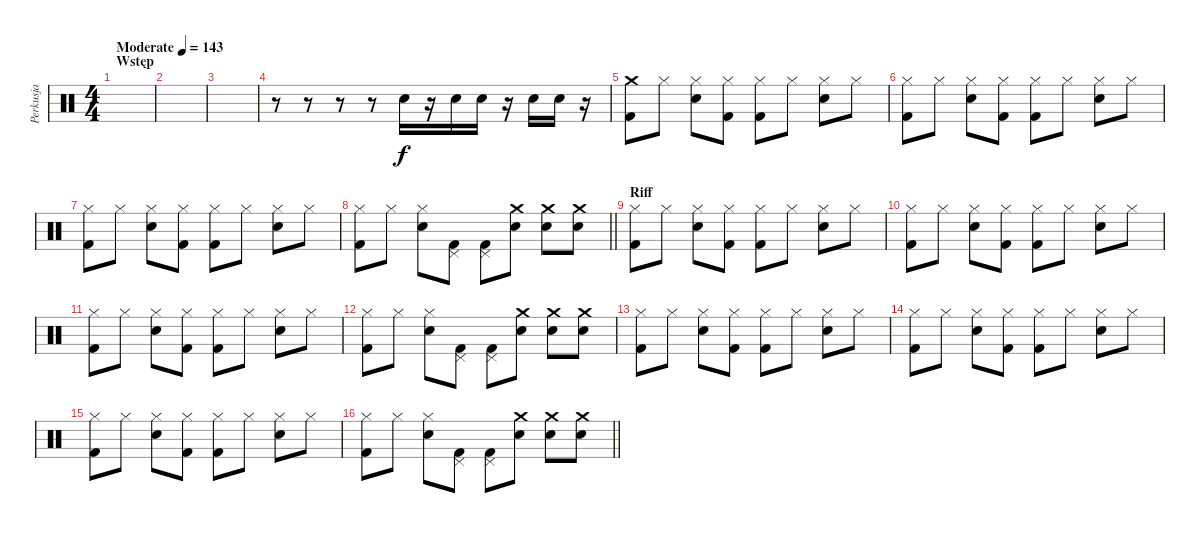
\track ("Perkusja" "Perkusja") {instrument percussion}
\staff {score}
\articulation defaults
\ts (4 4)
\section ("" "Wstęp")
\tempo (143 "Moderate")
\clef neutral
\ks c
|
|
|
r.8 r.8 r.8 r.8 "Snare (hit) 2".16 r.16 "Snare (hit) 2".16 "Snare (hit) 2".16 r.16 "Snare (hit) 2".16 "Snare (hit) 2".16 r.16 |
("Crash medium (hit)" "Kick (hit) 2").8 "Hi-Hat (closed)".8 ("Hi-Hat (closed)" "Electric Snare (hit)").8 ("Hi-Hat (closed)" "Kick (hit) 2").8 ("Hi-Hat (closed)" "Kick (hit) 2").8 "Hi-Hat (closed)".8 ("Hi-Hat (closed)" "Electric Snare (hit)").8 "Hi-Hat (closed)".8 |
("Hi-Hat (closed)" "Kick (hit) 2").8 "Hi-Hat (closed)".8 ("Hi-Hat (closed)" "Electric Snare (hit)").8 ("Hi-Hat (closed)" "Kick (hit) 2").8 ("Hi-Hat (closed)" "Kick (hit) 2").8 "Hi-Hat (closed)".8 ("Hi-Hat (closed)" "Electric Snare (hit)").8 "Hi-Hat (closed)".8 |
("Hi-Hat (closed)" "Kick (hit) 2").8 "Hi-Hat (closed)".8 ("Hi-Hat (closed)" "Electric Snare (hit)").8 ("Hi-Hat (closed)" "Kick (hit) 2").8 ("Hi-Hat (closed)" "Kick (hit) 2").8 "Hi-Hat (closed)".8 ("Hi-Hat (closed)" "Electric Snare (hit)").8 "Hi-Hat (closed)".8 |
\barLineRight lightlight
("Hi-Hat (closed)" "Kick (hit) 2").8 "Hi-Hat (closed)".8 ("Hi-Hat (closed)" "Electric Snare (hit)").8 ("Pedal Hi-Hat (hit)" "Kick (hit) 2").8 ("Pedal Hi-Hat (hit)" "Kick (hit) 2").8 ("Crash medium (hit)" "Snare (hit) 2").8 ("Crash medium (hit)" "Snare (hit) 2").8 ("Crash medium (hit)" "Snare (hit) 2").8 |
\section ("" "Riff")
("Hi-Hat (closed)" "Kick (hit) 2").8 "Hi-Hat (closed)".8 ("Hi-Hat (closed)" "Electric Snare (hit)").8 ("Hi-Hat (closed)" "Kick (hit) 2").8 ("Hi-Hat (closed)" "Kick (hit) 2").8 "Hi-Hat (closed)".8 ("Hi-Hat (closed)" "Electric Snare (hit)").8 "Hi-Hat (closed)".8 |
("Hi-Hat (closed)" "Kick (hit) 2").8 "Hi-Hat (closed)".8 ("Hi-Hat (closed)" "Electric Snare (hit)").8 ("Hi-Hat (closed)" "Kick (hit) 2").8 ("Hi-Hat (closed)" "Kick (hit) 2").8 "Hi-Hat (closed)".8 ("Hi-Hat (closed)" "Electric Snare (hit)").8 "Hi-Hat (closed)".8 |
("Hi-Hat (closed)" "Kick (hit) 2").8 "Hi-Hat (closed)".8 ("Hi-Hat (closed)" "Electric Snare (hit)").8 ("Hi-Hat (closed)" "Kick (hit) 2").8 ("Hi-Hat (closed)" "Kick (hit) 2").8 "Hi-Hat (closed)".8 ("Hi-Hat (closed)" "Electric Snare (hit)").8 "Hi-Hat (closed)".8 |
("Hi-Hat (closed)" "Kick (hit) 2").8 "Hi-Hat (closed)".8 ("Hi-Hat (closed)" "Electric Snare (hit)").8 ("Pedal Hi-Hat (hit)" "Kick (hit) 2").8 ("Pedal Hi-Hat (hit)" "Kick (hit) 2").8 ("Crash medium (hit)" "Snare (hit) 2").8 ("Crash medium (hit)" "Snare (hit) 2").8 ("Crash medium (hit)" "Snare (hit) 2").8 |
("Hi-Hat (closed)" "Kick (hit) 2").8 "Hi-Hat (closed)".8 ("Hi-Hat (closed)" "Electric Snare (hit)").8 ("Hi-Hat (closed)" "Kick (hit) 2").8 ("Hi-Hat (closed)" "Kick (hit) 2").8 "Hi-Hat (closed)".8 ("Hi-Hat (closed)" "Electric Snare (hit)").8 "Hi-Hat (closed)".8 |
("Hi-Hat (closed)" "Kick (hit) 2").8 "Hi-Hat (closed)".8 ("Hi-Hat (closed)" "Electric Snare (hit)").8 ("Hi-Hat (closed)" "Kick (hit) 2").8 ("Hi-Hat (closed)" "Kick (hit) 2").8 "Hi-Hat (closed)".8 ("Hi-Hat (closed)" "Electric Snare (hit)").8 "Hi-Hat (closed)".8 |
("Hi-Hat (closed)" "Kick (hit) 2").8 "Hi-Hat (closed)".8 ("Hi-Hat (closed)" "Electric Snare (hit)").8 ("Hi-Hat (closed)" "Kick (hit) 2").8 ("Hi-Hat (closed)" "Kick (hit) 2").8 "Hi-Hat (closed)".8 ("Hi-Hat (closed)" "Electric Snare (hit)").8 "Hi-Hat (closed)".8 |
\barLineRight lightlight
("Hi-Hat (closed)" "Kick (hit) 2").8 "Hi-Hat (closed)".8 ("Hi-Hat (closed)" "Electric Snare (hit)").8 ("Pedal Hi-Hat (hit)" "Kick (hit) 2").8 ("Pedal Hi-Hat (hit)" "Kick (hit) 2").8 ("Crash medium (hit)" "Snare (hit) 2").8 ("Crash medium (hit)" "Snare (hit) 2").8 ("Crash medium (hit)" "Snare (hit) 2").8
